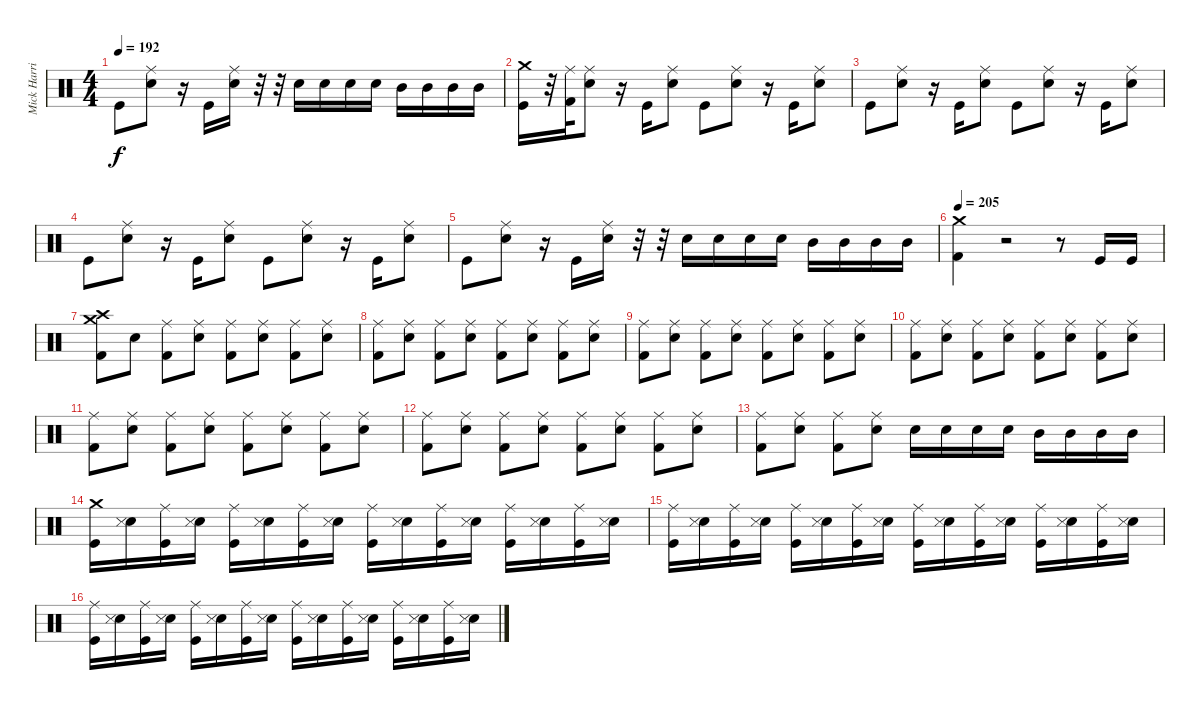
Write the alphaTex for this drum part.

\track ("Mick Harris (Drums)" "Mick Harri") {instrument percussion}
\staff {score}
\articulation defaults
\ts (4 4)
\tempo 192
\clef neutral
\ks c "Kick (hit)".8{dy f}
("Electric Snare (hit)" "Ride (middle)").8 r.16 "Kick (hit)".16 ("Electric Snare (hit)" "Ride (middle)").16 r.32 r.32 "Electric Snare (hit)".16 "Electric Snare (hit)".16 "Electric Snare (hit)".16 "Electric Snare (hit)".16 "Mid Tom (hit)".16 "Mid Tom (hit)".16 "Mid Tom (hit)".16 "Mid Tom (hit)".16 |
("Kick (hit)" "Crash medium (hit)").16 r.32 ("Kick (hit) 2" "Ride (middle)").32 ("Electric Snare (hit)" "Ride (middle)").8 r.16 "Kick (hit)".16 ("Electric Snare (hit)" "Ride (middle)").8 "Kick (hit)".8 ("Electric Snare (hit)" "Ride (middle)").8 r.16 "Kick (hit)".16 ("Electric Snare (hit)" "Ride (middle)").8 |
"Kick (hit)".8 ("Electric Snare (hit)" "Ride (middle)").8 r.16 "Kick (hit)".16 ("Electric Snare (hit)" "Ride (middle)").8 "Kick (hit)".8 ("Electric Snare (hit)" "Ride (middle)").8 r.16 "Kick (hit)".16 ("Electric Snare (hit)" "Ride (middle)").8 |
"Kick (hit)".8 ("Electric Snare (hit)" "Ride (middle)").8 r.16 "Kick (hit)".16 ("Electric Snare (hit)" "Ride (middle)").8 "Kick (hit)".8 ("Electric Snare (hit)" "Ride (middle)").8 r.16 "Kick (hit)".16 ("Electric Snare (hit)" "Ride (middle)").8 |
"Kick (hit)".8 ("Electric Snare (hit)" "Ride (middle)").8 r.16 "Kick (hit)".16 ("Electric Snare (hit)" "Ride (middle)").16 r.32 r.32 "Electric Snare (hit)".16 "Electric Snare (hit)".16 "Electric Snare (hit)".16 "Electric Snare (hit)".16 "Mid Tom (hit)".16 "Mid Tom (hit)".16 "Mid Tom (hit)".16 "Mid Tom (hit)".16 |
\tempo 205
("Kick (hit) 2" "Crash medium (hit)").4 r.2 r.8 "Kick (hit)".16 "Kick (hit)".16 |
("Kick (hit) 2" "Crash high (hit)" "Crash medium (hit)").8 "Electric Snare (hit)".8 ("Kick (hit) 2" "Ride (middle)").8 ("Electric Snare (hit)" "Ride (middle)").8 ("Kick (hit) 2" "Ride (middle)").8 ("Electric Snare (hit)" "Ride (middle)").8 ("Kick (hit) 2" "Ride (middle)").8 ("Electric Snare (hit)" "Ride (middle)").8 |
("Kick (hit) 2" "Ride (middle)").8 ("Electric Snare (hit)" "Ride (middle)").8 ("Kick (hit) 2" "Ride (middle)").8 ("Electric Snare (hit)" "Ride (middle)").8 ("Kick (hit) 2" "Ride (middle)").8 ("Electric Snare (hit)" "Ride (middle)").8 ("Kick (hit) 2" "Ride (middle)").8 ("Electric Snare (hit)" "Ride (middle)").8 |
("Kick (hit) 2" "Ride (middle)").8 ("Electric Snare (hit)" "Ride (middle)").8 ("Kick (hit) 2" "Ride (middle)").8 ("Electric Snare (hit)" "Ride (middle)").8 ("Kick (hit) 2" "Ride (middle)").8 ("Electric Snare (hit)" "Ride (middle)").8 ("Kick (hit) 2" "Ride (middle)").8 ("Electric Snare (hit)" "Ride (middle)").8 |
("Kick (hit) 2" "Ride (middle)").8 ("Electric Snare (hit)" "Ride (middle)").8 ("Kick (hit) 2" "Ride (middle)").8 ("Electric Snare (hit)" "Ride (middle)").8 ("Kick (hit) 2" "Ride (middle)").8 ("Electric Snare (hit)" "Ride (middle)").8 ("Kick (hit) 2" "Ride (middle)").8 ("Electric Snare (hit)" "Ride (middle)").8 |
("Kick (hit) 2" "Ride (middle)").8 ("Electric Snare (hit)" "Ride (middle)").8 ("Kick (hit) 2" "Ride (middle)").8 ("Electric Snare (hit)" "Ride (middle)").8 ("Kick (hit) 2" "Ride (middle)").8 ("Electric Snare (hit)" "Ride (middle)").8 ("Kick (hit) 2" "Ride (middle)").8 ("Electric Snare (hit)" "Ride (middle)").8 |
("Kick (hit) 2" "Ride (middle)").8 ("Electric Snare (hit)" "Ride (middle)").8 ("Kick (hit) 2" "Ride (middle)").8 ("Electric Snare (hit)" "Ride (middle)").8 ("Kick (hit) 2" "Ride (middle)").8 ("Electric Snare (hit)" "Ride (middle)").8 ("Kick (hit) 2" "Ride (middle)").8 ("Electric Snare (hit)" "Ride (middle)").8 |
("Kick (hit) 2" "Ride (middle)").8 ("Electric Snare (hit)" "Ride (middle)").8 ("Kick (hit) 2" "Ride (middle)").8 ("Electric Snare (hit)" "Ride (middle)").8 "Electric Snare (hit)".16 "Electric Snare (hit)".16 "Electric Snare (hit)".16 "Electric Snare (hit)".16 "Mid Tom (hit)".16 "Mid Tom (hit)".16 "Mid Tom (hit)".16 "Mid Tom (hit)".16 |
("Kick (hit)" "Crash medium (hit)").16 ("Electric Snare (hit)" "Snare (side stick) 3").16 ("Kick (hit)" "Ride (middle)").16 ("Electric Snare (hit)" "Snare (side stick) 3").16 ("Kick (hit)" "Ride (middle)").16 ("Electric Snare (hit)" "Snare (side stick) 3").16 ("Kick (hit)" "Ride (middle)").16 ("Electric Snare (hit)" "Snare (side stick) 3").16 ("Kick (hit)" "Ride (middle)").16 ("Electric Snare (hit)" "Snare (side stick) 3").16 ("Kick (hit)" "Ride (middle)").16 ("Electric Snare (hit)" "Snare (side stick) 3").16 ("Kick (hit)" "Ride (middle)").16 ("Electric Snare (hit)" "Snare (side stick) 3").16 ("Kick (hit)" "Ride (middle)").16 ("Electric Snare (hit)" "Snare (side stick) 3").16 |
("Kick (hit)" "Ride (middle)").16 ("Electric Snare (hit)" "Snare (side stick) 3").16 ("Kick (hit)" "Ride (middle)").16 ("Electric Snare (hit)" "Snare (side stick) 3").16 ("Kick (hit)" "Ride (middle)").16 ("Electric Snare (hit)" "Snare (side stick) 3").16 ("Kick (hit)" "Ride (middle)").16 ("Electric Snare (hit)" "Snare (side stick) 3").16 ("Kick (hit)" "Ride (middle)").16 ("Electric Snare (hit)" "Snare (side stick) 3").16 ("Kick (hit)" "Ride (middle)").16 ("Electric Snare (hit)" "Snare (side stick) 3").16 ("Kick (hit)" "Ride (middle)").16 ("Electric Snare (hit)" "Snare (side stick) 3").16 ("Kick (hit)" "Ride (middle)").16 ("Electric Snare (hit)" "Snare (side stick) 3").16 |
("Kick (hit)" "Ride (middle)").16 ("Electric Snare (hit)" "Snare (side stick) 3").16 ("Kick (hit)" "Ride (middle)").16 ("Electric Snare (hit)" "Snare (side stick) 3").16 ("Kick (hit)" "Ride (middle)").16 ("Electric Snare (hit)" "Snare (side stick) 3").16 ("Kick (hit)" "Ride (middle)").16 ("Electric Snare (hit)" "Snare (side stick) 3").16 ("Kick (hit)" "Ride (middle)").16 ("Electric Snare (hit)" "Snare (side stick) 3").16 ("Kick (hit)" "Ride (middle)").16 ("Electric Snare (hit)" "Snare (side stick) 3").16 ("Kick (hit)" "Ride (middle)").16 ("Electric Snare (hit)" "Snare (side stick) 3").16 ("Kick (hit)" "Ride (middle)").16 ("Electric Snare (hit)" "Snare (side stick) 3").16
